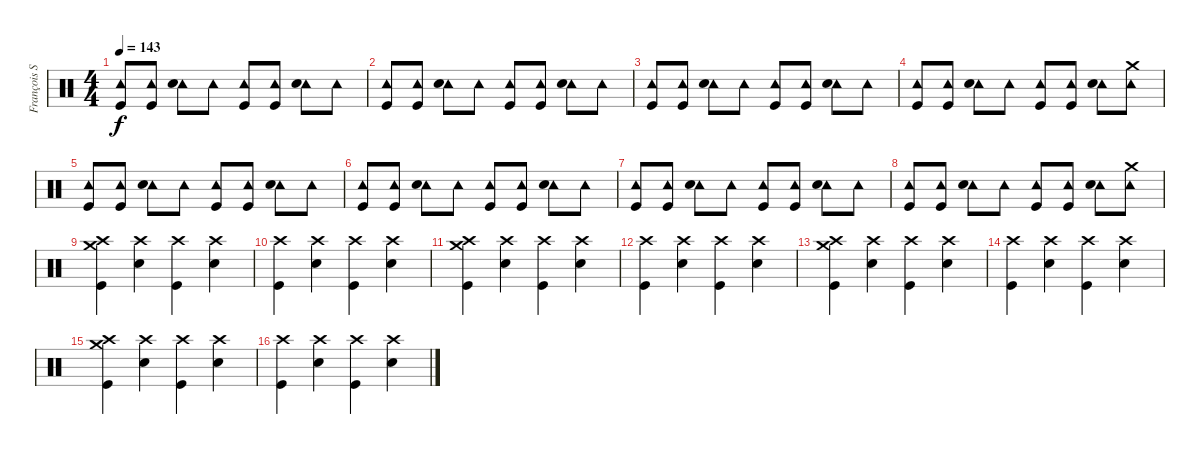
\track ("François Soulier" "François S") {instrument percussion}
\staff {score}
\articulation defaults
\ts (4 4)
\tempo 143
\clef neutral
\ks c
("Tambourine (hit)" "Kick (hit)").8{dy f} ("Tambourine (hit)" "Kick (hit)").8 ("Tambourine (hit)" "Snare (hit) 2").8 "Tambourine (hit)".8 ("Tambourine (hit)" "Kick (hit)").8 ("Tambourine (hit)" "Kick (hit)").8 ("Tambourine (hit)" "Snare (hit) 2").8 "Tambourine (hit)".8 |
("Tambourine (hit)" "Kick (hit)").8 ("Tambourine (hit)" "Kick (hit)").8 ("Tambourine (hit)" "Snare (hit) 2").8 "Tambourine (hit)".8 ("Tambourine (hit)" "Kick (hit)").8 ("Tambourine (hit)" "Kick (hit)").8 ("Tambourine (hit)" "Snare (hit) 2").8 "Tambourine (hit)".8 |
("Tambourine (hit)" "Kick (hit)").8 ("Tambourine (hit)" "Kick (hit)").8 ("Tambourine (hit)" "Snare (hit) 2").8 "Tambourine (hit)".8 ("Tambourine (hit)" "Kick (hit)").8 ("Tambourine (hit)" "Kick (hit)").8 ("Tambourine (hit)" "Snare (hit) 2").8 "Tambourine (hit)".8 |
("Tambourine (hit)" "Kick (hit)").8 ("Tambourine (hit)" "Kick (hit)").8 ("Tambourine (hit)" "Snare (hit) 2").8 "Tambourine (hit)".8 ("Tambourine (hit)" "Kick (hit)").8 ("Tambourine (hit)" "Kick (hit)").8 ("Tambourine (hit)" "Snare (hit) 2").8 ("Tambourine (hit)" "Crash medium (hit)").8 |
("Tambourine (hit)" "Kick (hit)").8 ("Tambourine (hit)" "Kick (hit)").8 ("Tambourine (hit)" "Snare (hit) 2").8 "Tambourine (hit)".8 ("Tambourine (hit)" "Kick (hit)").8 ("Tambourine (hit)" "Kick (hit)").8 ("Tambourine (hit)" "Snare (hit) 2").8 "Tambourine (hit)".8 |
("Tambourine (hit)" "Kick (hit)").8 ("Tambourine (hit)" "Kick (hit)").8 ("Tambourine (hit)" "Snare (hit) 2").8 "Tambourine (hit)".8 ("Tambourine (hit)" "Kick (hit)").8 ("Tambourine (hit)" "Kick (hit)").8 ("Tambourine (hit)" "Snare (hit) 2").8 "Tambourine (hit)".8 |
("Tambourine (hit)" "Kick (hit)").8 ("Tambourine (hit)" "Kick (hit)").8 ("Tambourine (hit)" "Snare (hit) 2").8 "Tambourine (hit)".8 ("Tambourine (hit)" "Kick (hit)").8 ("Tambourine (hit)" "Kick (hit)").8 ("Tambourine (hit)" "Snare (hit) 2").8 "Tambourine (hit)".8 |
("Tambourine (hit)" "Kick (hit)").8 ("Tambourine (hit)" "Kick (hit)").8 ("Tambourine (hit)" "Snare (hit) 2").8 "Tambourine (hit)".8 ("Tambourine (hit)" "Kick (hit)").8 ("Tambourine (hit)" "Kick (hit)").8 ("Tambourine (hit)" "Snare (hit) 2").8 ("Tambourine (hit)" "Crash medium (hit)").8 |
("Crash high (hit)" "Crash medium (hit)" "Kick (hit)").4 ("Crash high (hit)" "Snare (hit) 2").4 ("Crash high (hit)" "Kick (hit)").4 ("Crash high (hit)" "Snare (hit) 2").4 |
("Crash high (hit)" "Kick (hit)").4 ("Crash high (hit)" "Snare (hit) 2").4 ("Crash high (hit)" "Kick (hit)").4 ("Crash high (hit)" "Snare (hit) 2").4 |
("Crash high (hit)" "Crash medium (hit)" "Kick (hit)").4 ("Crash high (hit)" "Snare (hit) 2").4 ("Crash high (hit)" "Kick (hit)").4 ("Crash high (hit)" "Snare (hit) 2").4 |
("Crash high (hit)" "Kick (hit)").4 ("Crash high (hit)" "Snare (hit) 2").4 ("Crash high (hit)" "Kick (hit)").4 ("Crash high (hit)" "Snare (hit) 2").4 |
("Crash high (hit)" "Crash medium (hit)" "Kick (hit)").4 ("Crash high (hit)" "Snare (hit) 2").4 ("Crash high (hit)" "Kick (hit)").4 ("Crash high (hit)" "Snare (hit) 2").4 |
("Crash high (hit)" "Kick (hit)").4 ("Crash high (hit)" "Snare (hit) 2").4 ("Crash high (hit)" "Kick (hit)").4 ("Crash high (hit)" "Snare (hit) 2").4 |
("Crash high (hit)" "Crash medium (hit)" "Kick (hit)").4 ("Crash high (hit)" "Snare (hit) 2").4 ("Crash high (hit)" "Kick (hit)").4 ("Crash high (hit)" "Snare (hit) 2").4 |
("Crash high (hit)" "Kick (hit)").4 ("Crash high (hit)" "Snare (hit) 2").4 ("Crash high (hit)" "Kick (hit)").4 ("Crash high (hit)" "Snare (hit) 2").4
